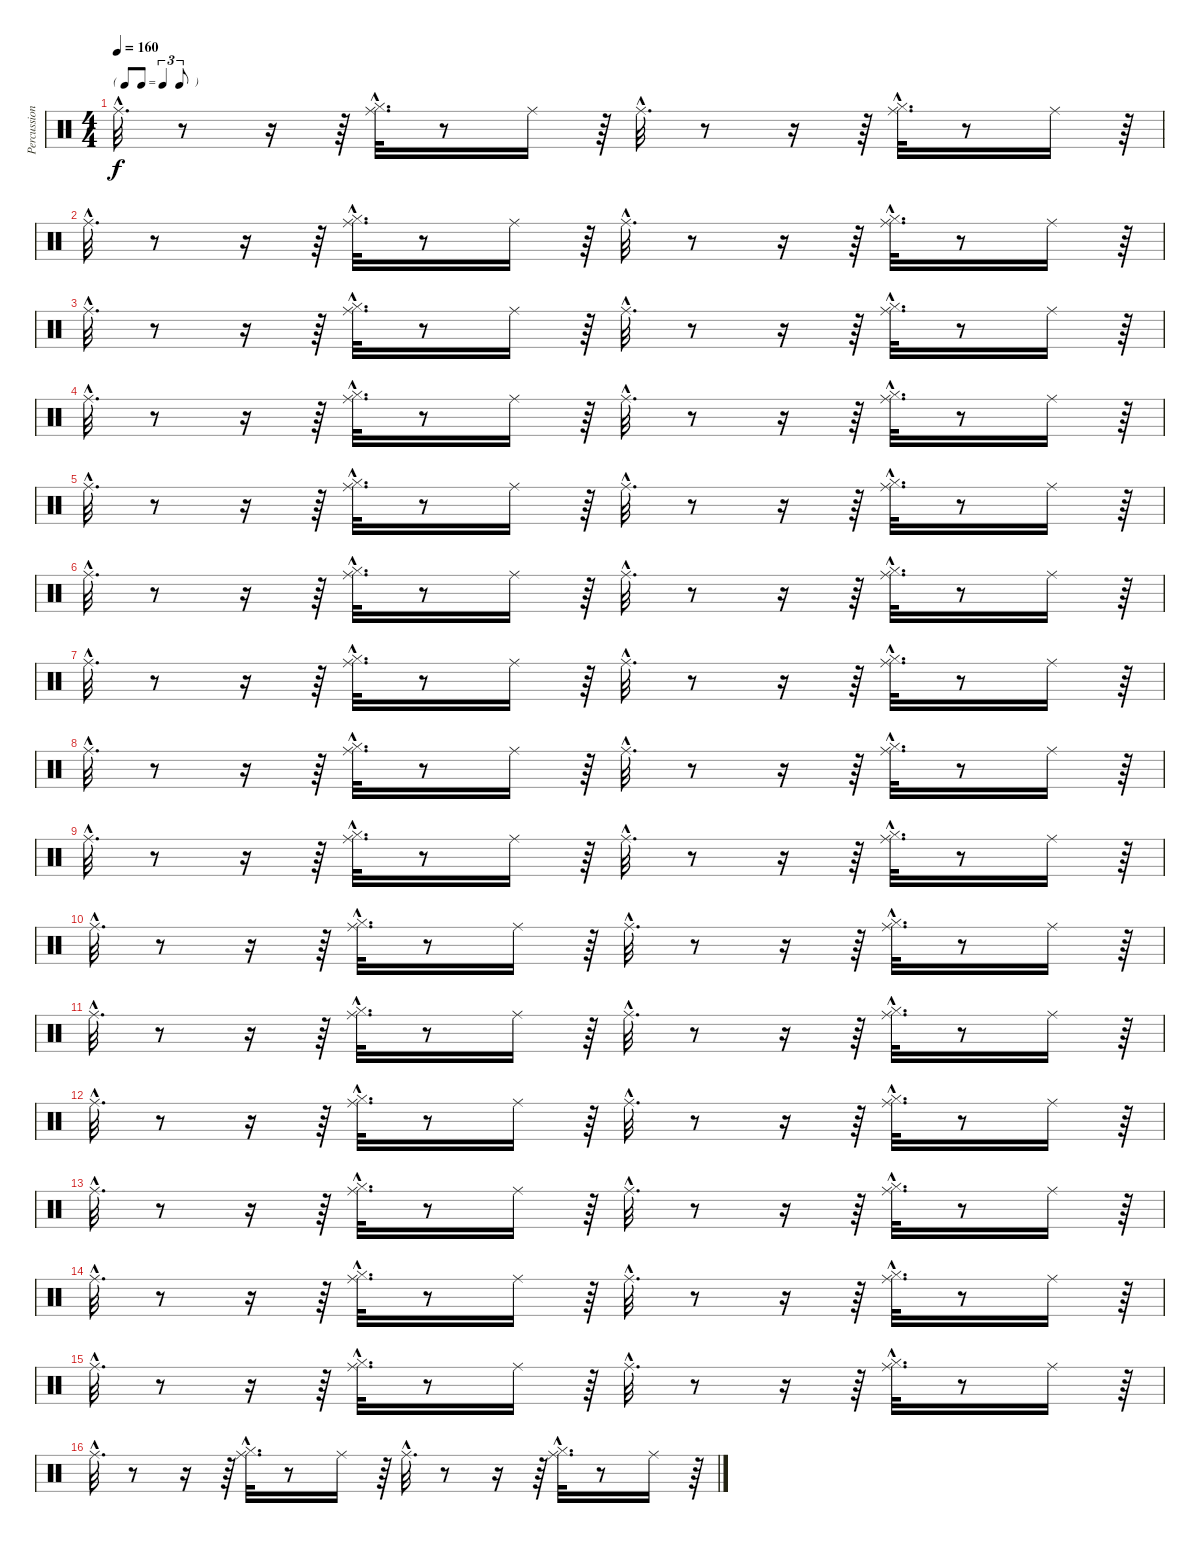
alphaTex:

\track ("Percussions" "Percussion") {instrument percussion}
\staff {score}
\articulation defaults
\ts (4 4)
\tf triplet8th
\tempo 160
\clef neutral
\ks c "Ride (middle)"{hac}.32{d dy f}
r.8 r.16 r.64 ("Hi-Hat (closed)"{hac} "Ride (middle)"{hac}).32{d} r.8 "Ride (middle)".16 r.64 "Ride (middle)"{hac}.32{d} r.8 r.16 r.64 ("Hi-Hat (closed)"{hac} "Ride (middle)"{hac}).32{d} r.8 "Ride (middle)".16 r.64 |
"Ride (middle)"{hac}.32{d} r.8 r.16 r.64 ("Hi-Hat (closed)"{hac} "Ride (middle)"{hac}).32{d} r.8 "Ride (middle)".16 r.64 "Ride (middle)"{hac}.32{d} r.8 r.16 r.64 ("Hi-Hat (closed)"{hac} "Ride (middle)"{hac}).32{d} r.8 "Ride (middle)".16 r.64 |
"Ride (middle)"{hac}.32{d} r.8 r.16 r.64 ("Hi-Hat (closed)"{hac} "Ride (middle)"{hac}).32{d} r.8 "Ride (middle)".16 r.64 "Ride (middle)"{hac}.32{d} r.8 r.16 r.64 ("Hi-Hat (closed)"{hac} "Ride (middle)"{hac}).32{d} r.8 "Ride (middle)".16 r.64 |
"Ride (middle)"{hac}.32{d} r.8 r.16 r.64 ("Hi-Hat (closed)"{hac} "Ride (middle)"{hac}).32{d} r.8 "Ride (middle)".16 r.64 "Ride (middle)"{hac}.32{d} r.8 r.16 r.64 ("Hi-Hat (closed)"{hac} "Ride (middle)"{hac}).32{d} r.8 "Ride (middle)".16 r.64 |
"Ride (middle)"{hac}.32{d} r.8 r.16 r.64 ("Hi-Hat (closed)"{hac} "Ride (middle)"{hac}).32{d} r.8 "Ride (middle)".16 r.64 "Ride (middle)"{hac}.32{d} r.8 r.16 r.64 ("Hi-Hat (closed)"{hac} "Ride (middle)"{hac}).32{d} r.8 "Ride (middle)".16 r.64 |
"Ride (middle)"{hac}.32{d} r.8 r.16 r.64 ("Hi-Hat (closed)"{hac} "Ride (middle)"{hac}).32{d} r.8 "Ride (middle)".16 r.64 "Ride (middle)"{hac}.32{d} r.8 r.16 r.64 ("Hi-Hat (closed)"{hac} "Ride (middle)"{hac}).32{d} r.8 "Ride (middle)".16 r.64 |
"Ride (middle)"{hac}.32{d} r.8 r.16 r.64 ("Hi-Hat (closed)"{hac} "Ride (middle)"{hac}).32{d} r.8 "Ride (middle)".16 r.64 "Ride (middle)"{hac}.32{d} r.8 r.16 r.64 ("Hi-Hat (closed)"{hac} "Ride (middle)"{hac}).32{d} r.8 "Ride (middle)".16 r.64 |
"Ride (middle)"{hac}.32{d} r.8 r.16 r.64 ("Hi-Hat (closed)"{hac} "Ride (middle)"{hac}).32{d} r.8 "Ride (middle)".16 r.64 "Ride (middle)"{hac}.32{d} r.8 r.16 r.64 ("Hi-Hat (closed)"{hac} "Ride (middle)"{hac}).32{d} r.8 "Ride (middle)".16 r.64 |
"Ride (middle)"{hac}.32{d} r.8 r.16 r.64 ("Hi-Hat (closed)"{hac} "Ride (middle)"{hac}).32{d} r.8 "Ride (middle)".16 r.64 "Ride (middle)"{hac}.32{d} r.8 r.16 r.64 ("Hi-Hat (closed)"{hac} "Ride (middle)"{hac}).32{d} r.8 "Ride (middle)".16 r.64 |
"Ride (middle)"{hac}.32{d} r.8 r.16 r.64 ("Hi-Hat (closed)"{hac} "Ride (middle)"{hac}).32{d} r.8 "Ride (middle)".16 r.64 "Ride (middle)"{hac}.32{d} r.8 r.16 r.64 ("Hi-Hat (closed)"{hac} "Ride (middle)"{hac}).32{d} r.8 "Ride (middle)".16 r.64 |
"Ride (middle)"{hac}.32{d} r.8 r.16 r.64 ("Hi-Hat (closed)"{hac} "Ride (middle)"{hac}).32{d} r.8 "Ride (middle)".16 r.64 "Ride (middle)"{hac}.32{d} r.8 r.16 r.64 ("Hi-Hat (closed)"{hac} "Ride (middle)"{hac}).32{d} r.8 "Ride (middle)".16 r.64 |
"Ride (middle)"{hac}.32{d} r.8 r.16 r.64 ("Hi-Hat (closed)"{hac} "Ride (middle)"{hac}).32{d} r.8 "Ride (middle)".16 r.64 "Ride (middle)"{hac}.32{d} r.8 r.16 r.64 ("Hi-Hat (closed)"{hac} "Ride (middle)"{hac}).32{d} r.8 "Ride (middle)".16 r.64 |
"Ride (middle)"{hac}.32{d} r.8 r.16 r.64 ("Hi-Hat (closed)"{hac} "Ride (middle)"{hac}).32{d} r.8 "Ride (middle)".16 r.64 "Ride (middle)"{hac}.32{d} r.8 r.16 r.64 ("Hi-Hat (closed)"{hac} "Ride (middle)"{hac}).32{d} r.8 "Ride (middle)".16 r.64 |
"Ride (middle)"{hac}.32{d} r.8 r.16 r.64 ("Hi-Hat (closed)"{hac} "Ride (middle)"{hac}).32{d} r.8 "Ride (middle)".16 r.64 "Ride (middle)"{hac}.32{d} r.8 r.16 r.64 ("Hi-Hat (closed)"{hac} "Ride (middle)"{hac}).32{d} r.8 "Ride (middle)".16 r.64 |
"Ride (middle)"{hac}.32{d} r.8 r.16 r.64 ("Hi-Hat (closed)"{hac} "Ride (middle)"{hac}).32{d} r.8 "Ride (middle)".16 r.64 "Ride (middle)"{hac}.32{d} r.8 r.16 r.64 ("Hi-Hat (closed)"{hac} "Ride (middle)"{hac}).32{d} r.8 "Ride (middle)".16 r.64 |
"Ride (middle)"{hac}.32{d} r.8 r.16 r.64 ("Hi-Hat (closed)"{hac} "Ride (middle)"{hac}).32{d} r.8 "Ride (middle)".16 r.64 "Ride (middle)"{hac}.32{d} r.8 r.16 r.64 ("Hi-Hat (closed)"{hac} "Ride (middle)"{hac}).32{d} r.8 "Ride (middle)".16 r.64
